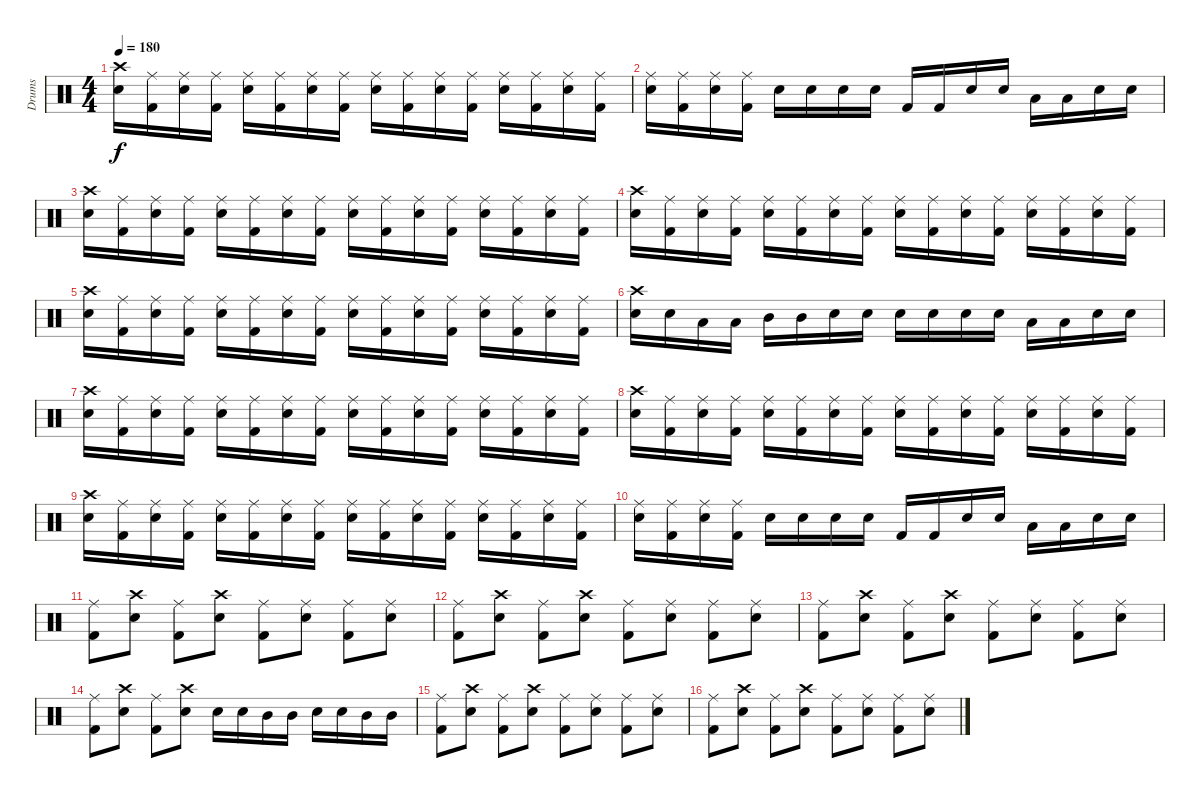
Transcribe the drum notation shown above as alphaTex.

\track ("Drums" "Drums") {instrument percussion}
\staff {score}
\articulation defaults
\ts (4 4)
\tempo 180
\clef neutral
\ks c
("Crash high (hit)" "Snare (hit) 2").16{dy f} ("Ride (middle)" "Kick (hit) 2").16 ("Ride (middle)" "Snare (hit) 2").16 ("Ride (middle)" "Kick (hit) 2").16 ("Ride (middle)" "Snare (hit) 2").16 ("Ride (middle)" "Kick (hit) 2").16 ("Ride (middle)" "Snare (hit) 2").16 ("Ride (middle)" "Kick (hit) 2").16 ("Ride (middle)" "Snare (hit) 2").16 ("Ride (middle)" "Kick (hit) 2").16 ("Ride (middle)" "Snare (hit) 2").16 ("Ride (middle)" "Kick (hit) 2").16 ("Ride (middle)" "Snare (hit) 2").16 ("Ride (middle)" "Kick (hit) 2").16 ("Ride (middle)" "Snare (hit) 2").16 ("Ride (middle)" "Kick (hit) 2").16 |
("Snare (hit) 2" "Ride (middle)").16 ("Kick (hit) 2" "Ride (middle)").16 ("Snare (hit) 2" "Ride (middle)").16 ("Kick (hit) 2" "Ride (middle)").16 "Snare (hit) 2".16 "Snare (hit) 2".16 "Snare (hit) 2".16 "Snare (hit) 2".16 "Kick (hit) 2".16 "Kick (hit) 2".16 "Snare (hit) 2".16 "Snare (hit) 2".16 "Low Tom (hit)".16 "Low Tom (hit)".16 "Snare (hit) 2".16 "Snare (hit) 2".16 |
("Crash high (hit)" "Snare (hit) 2").16 ("Ride (middle)" "Kick (hit) 2").16 ("Ride (middle)" "Snare (hit) 2").16 ("Ride (middle)" "Kick (hit) 2").16 ("Ride (middle)" "Snare (hit) 2").16 ("Ride (middle)" "Kick (hit) 2").16 ("Ride (middle)" "Snare (hit) 2").16 ("Ride (middle)" "Kick (hit) 2").16 ("Ride (middle)" "Snare (hit) 2").16 ("Ride (middle)" "Kick (hit) 2").16 ("Ride (middle)" "Snare (hit) 2").16 ("Ride (middle)" "Kick (hit) 2").16 ("Ride (middle)" "Snare (hit) 2").16 ("Ride (middle)" "Kick (hit) 2").16 ("Ride (middle)" "Snare (hit) 2").16 ("Ride (middle)" "Kick (hit) 2").16 |
("Crash high (hit)" "Snare (hit) 2").16 ("Ride (middle)" "Kick (hit) 2").16 ("Ride (middle)" "Snare (hit) 2").16 ("Ride (middle)" "Kick (hit) 2").16 ("Ride (middle)" "Snare (hit) 2").16 ("Ride (middle)" "Kick (hit) 2").16 ("Ride (middle)" "Snare (hit) 2").16 ("Ride (middle)" "Kick (hit) 2").16 ("Ride (middle)" "Snare (hit) 2").16 ("Ride (middle)" "Kick (hit) 2").16 ("Ride (middle)" "Snare (hit) 2").16 ("Ride (middle)" "Kick (hit) 2").16 ("Ride (middle)" "Snare (hit) 2").16 ("Ride (middle)" "Kick (hit) 2").16 ("Ride (middle)" "Snare (hit) 2").16 ("Ride (middle)" "Kick (hit) 2").16 |
("Crash high (hit)" "Snare (hit) 2").16 ("Ride (middle)" "Kick (hit) 2").16 ("Ride (middle)" "Snare (hit) 2").16 ("Ride (middle)" "Kick (hit) 2").16 ("Ride (middle)" "Snare (hit) 2").16 ("Ride (middle)" "Kick (hit) 2").16 ("Ride (middle)" "Snare (hit) 2").16 ("Ride (middle)" "Kick (hit) 2").16 ("Ride (middle)" "Snare (hit) 2").16 ("Ride (middle)" "Kick (hit) 2").16 ("Ride (middle)" "Snare (hit) 2").16 ("Ride (middle)" "Kick (hit) 2").16 ("Ride (middle)" "Snare (hit) 2").16 ("Ride (middle)" "Kick (hit) 2").16 ("Ride (middle)" "Snare (hit) 2").16 ("Ride (middle)" "Kick (hit) 2").16 |
("Snare (hit) 2" "Crash high (hit)").16 "Snare (hit) 2".16 "Low Tom (hit)".16 "Low Tom (hit)".16 "Mid Tom (hit)".16 "Mid Tom (hit)".16 "Snare (hit) 2".16 "Snare (hit) 2".16 "Snare (hit) 2".16 "Snare (hit) 2".16 "Snare (hit) 2".16 "Snare (hit) 2".16 "Low Tom (hit)".16 "Low Tom (hit)".16 "Snare (hit) 2".16 "Snare (hit) 2".16 |
("Crash high (hit)" "Snare (hit) 2").16 ("Ride (middle)" "Kick (hit) 2").16 ("Ride (middle)" "Snare (hit) 2").16 ("Ride (middle)" "Kick (hit) 2").16 ("Ride (middle)" "Snare (hit) 2").16 ("Ride (middle)" "Kick (hit) 2").16 ("Ride (middle)" "Snare (hit) 2").16 ("Ride (middle)" "Kick (hit) 2").16 ("Ride (middle)" "Snare (hit) 2").16 ("Ride (middle)" "Kick (hit) 2").16 ("Ride (middle)" "Snare (hit) 2").16 ("Ride (middle)" "Kick (hit) 2").16 ("Ride (middle)" "Snare (hit) 2").16 ("Ride (middle)" "Kick (hit) 2").16 ("Ride (middle)" "Snare (hit) 2").16 ("Ride (middle)" "Kick (hit) 2").16 |
("Crash high (hit)" "Snare (hit) 2").16 ("Ride (middle)" "Kick (hit) 2").16 ("Ride (middle)" "Snare (hit) 2").16 ("Ride (middle)" "Kick (hit) 2").16 ("Ride (middle)" "Snare (hit) 2").16 ("Ride (middle)" "Kick (hit) 2").16 ("Ride (middle)" "Snare (hit) 2").16 ("Ride (middle)" "Kick (hit) 2").16 ("Ride (middle)" "Snare (hit) 2").16 ("Ride (middle)" "Kick (hit) 2").16 ("Ride (middle)" "Snare (hit) 2").16 ("Ride (middle)" "Kick (hit) 2").16 ("Ride (middle)" "Snare (hit) 2").16 ("Ride (middle)" "Kick (hit) 2").16 ("Ride (middle)" "Snare (hit) 2").16 ("Ride (middle)" "Kick (hit) 2").16 |
("Crash high (hit)" "Snare (hit) 2").16 ("Ride (middle)" "Kick (hit) 2").16 ("Ride (middle)" "Snare (hit) 2").16 ("Ride (middle)" "Kick (hit) 2").16 ("Ride (middle)" "Snare (hit) 2").16 ("Ride (middle)" "Kick (hit) 2").16 ("Ride (middle)" "Snare (hit) 2").16 ("Ride (middle)" "Kick (hit) 2").16 ("Ride (middle)" "Snare (hit) 2").16 ("Ride (middle)" "Kick (hit) 2").16 ("Ride (middle)" "Snare (hit) 2").16 ("Ride (middle)" "Kick (hit) 2").16 ("Ride (middle)" "Snare (hit) 2").16 ("Ride (middle)" "Kick (hit) 2").16 ("Ride (middle)" "Snare (hit) 2").16 ("Ride (middle)" "Kick (hit) 2").16 |
("Snare (hit) 2" "Ride (middle)").16 ("Kick (hit) 2" "Ride (middle)").16 ("Snare (hit) 2" "Ride (middle)").16 ("Kick (hit) 2" "Ride (middle)").16 "Snare (hit) 2".16 "Snare (hit) 2".16 "Snare (hit) 2".16 "Snare (hit) 2".16 "Kick (hit) 2".16 "Kick (hit) 2".16 "Snare (hit) 2".16 "Snare (hit) 2".16 "Low Tom (hit)".16 "Low Tom (hit)".16 "Snare (hit) 2".16 "Snare (hit) 2".16 |
("Ride (middle)" "Kick (hit) 2").8 ("Snare (hit) 2" "Crash high (hit)").8 ("Ride (middle)" "Kick (hit) 2").8 ("Snare (hit) 2" "Crash high (hit)").8 ("Ride (middle)" "Kick (hit) 2").8 ("Ride (middle)" "Snare (hit) 2").8 ("Ride (middle)" "Kick (hit) 2").8 ("Ride (middle)" "Snare (hit) 2").8 |
("Ride (middle)" "Kick (hit) 2").8 ("Snare (hit) 2" "Crash high (hit)").8 ("Ride (middle)" "Kick (hit) 2").8 ("Snare (hit) 2" "Crash high (hit)").8 ("Ride (middle)" "Kick (hit) 2").8 ("Ride (middle)" "Snare (hit) 2").8 ("Ride (middle)" "Kick (hit) 2").8 ("Ride (middle)" "Snare (hit) 2").8 |
("Ride (middle)" "Kick (hit) 2").8 ("Snare (hit) 2" "Crash high (hit)").8 ("Ride (middle)" "Kick (hit) 2").8 ("Snare (hit) 2" "Crash high (hit)").8 ("Ride (middle)" "Kick (hit) 2").8 ("Ride (middle)" "Snare (hit) 2").8 ("Ride (middle)" "Kick (hit) 2").8 ("Ride (middle)" "Snare (hit) 2").8 |
("Ride (middle)" "Kick (hit) 2").8 ("Snare (hit) 2" "Crash high (hit)").8 ("Ride (middle)" "Kick (hit) 2").8 ("Snare (hit) 2" "Crash high (hit)").8 "Snare (hit) 2".16 "Snare (hit) 2".16 "Mid Tom (hit)".16 "Mid Tom (hit)".16 "Snare (hit) 2".16 "Snare (hit) 2".16 "Mid Tom (hit)".16 "Mid Tom (hit)".16 |
("Ride (middle)" "Kick (hit) 2").8 ("Snare (hit) 2" "Crash high (hit)").8 ("Ride (middle)" "Kick (hit) 2").8 ("Snare (hit) 2" "Crash high (hit)").8 ("Ride (middle)" "Kick (hit) 2").8 ("Ride (middle)" "Snare (hit) 2").8 ("Ride (middle)" "Kick (hit) 2").8 ("Ride (middle)" "Snare (hit) 2").8 |
("Ride (middle)" "Kick (hit) 2").8 ("Snare (hit) 2" "Crash high (hit)").8 ("Ride (middle)" "Kick (hit) 2").8 ("Snare (hit) 2" "Crash high (hit)").8 ("Ride (middle)" "Kick (hit) 2").8 ("Ride (middle)" "Snare (hit) 2").8 ("Ride (middle)" "Kick (hit) 2").8 ("Ride (middle)" "Snare (hit) 2").8
